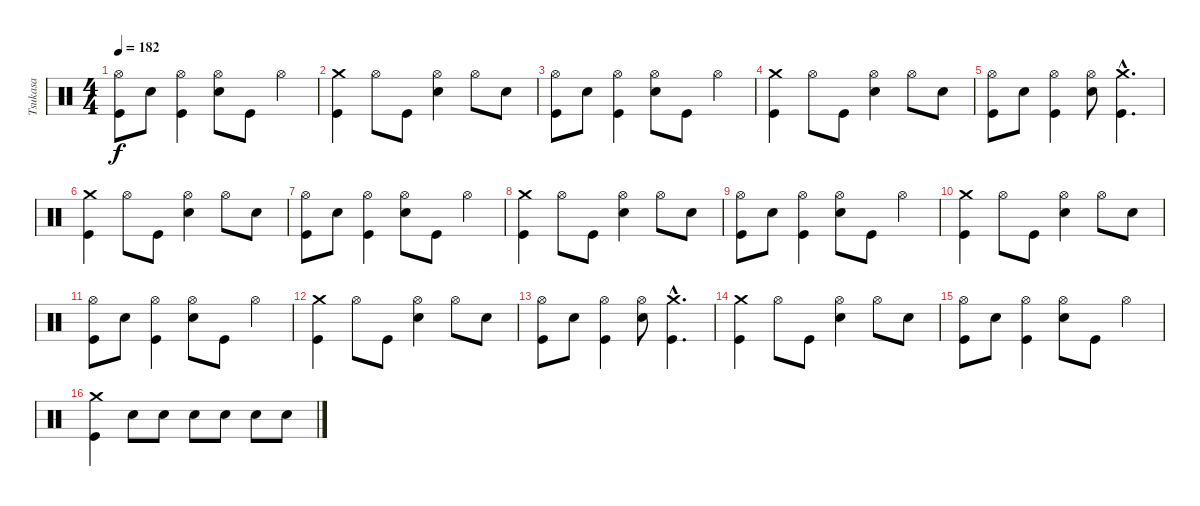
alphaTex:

\track ("Tsukasa" "Tsukasa") {instrument percussion}
\staff {score}
\articulation defaults
\ts (4 4)
\tempo 182
\clef neutral
\ks c
("Kick (hit)" "Hi-Hat (open)").8{dy f} "Electric Snare (hit)".8 ("Kick (hit)" "Hi-Hat (open)").4 ("Electric Snare (hit)" "Hi-Hat (open)").8 "Kick (hit)".8 "Hi-Hat (open)".4 |
("Kick (hit)" "Crash medium (hit)").4 "Hi-Hat (open)".8 "Kick (hit)".8 ("Electric Snare (hit)" "Hi-Hat (open)").4 "Hi-Hat (open)".8 "Electric Snare (hit)".8 |
("Kick (hit)" "Hi-Hat (open)").8 "Electric Snare (hit)".8 ("Kick (hit)" "Hi-Hat (open)").4 ("Electric Snare (hit)" "Hi-Hat (open)").8 "Kick (hit)".8 "Hi-Hat (open)".4 |
("Kick (hit)" "Crash medium (hit)").4 "Hi-Hat (open)".8 "Kick (hit)".8 ("Electric Snare (hit)" "Hi-Hat (open)").4 "Hi-Hat (open)".8 "Electric Snare (hit)".8 |
("Kick (hit)" "Hi-Hat (open)").8 "Electric Snare (hit)".8 ("Kick (hit)" "Hi-Hat (open)").4 ("Electric Snare (hit)" "Hi-Hat (open)").8 ("Kick (hit)"{hac} "Crash medium (hit)"{hac}).4{d} |
("Kick (hit)" "Crash medium (hit)").4 "Hi-Hat (open)".8 "Kick (hit)".8 ("Electric Snare (hit)" "Hi-Hat (open)").4 "Hi-Hat (open)".8 "Electric Snare (hit)".8 |
("Kick (hit)" "Hi-Hat (open)").8 "Electric Snare (hit)".8 ("Kick (hit)" "Hi-Hat (open)").4 ("Electric Snare (hit)" "Hi-Hat (open)").8 "Kick (hit)".8 "Hi-Hat (open)".4 |
("Kick (hit)" "Crash medium (hit)").4 "Hi-Hat (open)".8 "Kick (hit)".8 ("Electric Snare (hit)" "Hi-Hat (open)").4 "Hi-Hat (open)".8 "Electric Snare (hit)".8 |
("Kick (hit)" "Hi-Hat (open)").8 "Electric Snare (hit)".8 ("Kick (hit)" "Hi-Hat (open)").4 ("Electric Snare (hit)" "Hi-Hat (open)").8 "Kick (hit)".8 "Hi-Hat (open)".4 |
("Kick (hit)" "Crash medium (hit)").4 "Hi-Hat (open)".8 "Kick (hit)".8 ("Electric Snare (hit)" "Hi-Hat (open)").4 "Hi-Hat (open)".8 "Electric Snare (hit)".8 |
("Kick (hit)" "Hi-Hat (open)").8 "Electric Snare (hit)".8 ("Kick (hit)" "Hi-Hat (open)").4 ("Electric Snare (hit)" "Hi-Hat (open)").8 "Kick (hit)".8 "Hi-Hat (open)".4 |
("Kick (hit)" "Crash medium (hit)").4 "Hi-Hat (open)".8 "Kick (hit)".8 ("Electric Snare (hit)" "Hi-Hat (open)").4 "Hi-Hat (open)".8 "Electric Snare (hit)".8 |
("Kick (hit)" "Hi-Hat (open)").8 "Electric Snare (hit)".8 ("Kick (hit)" "Hi-Hat (open)").4 ("Electric Snare (hit)" "Hi-Hat (open)").8 ("Kick (hit)"{hac} "Crash medium (hit)"{hac}).4{d} |
("Kick (hit)" "Crash medium (hit)").4 "Hi-Hat (open)".8 "Kick (hit)".8 ("Electric Snare (hit)" "Hi-Hat (open)").4 "Hi-Hat (open)".8 "Electric Snare (hit)".8 |
("Kick (hit)" "Hi-Hat (open)").8 "Electric Snare (hit)".8 ("Kick (hit)" "Hi-Hat (open)").4 ("Electric Snare (hit)" "Hi-Hat (open)").8 "Kick (hit)".8 "Hi-Hat (open)".4 |
("Kick (hit)" "Crash medium (hit)").4 "Electric Snare (hit)".8 "Electric Snare (hit)".8 "Electric Snare (hit)".8 "Electric Snare (hit)".8 "Electric Snare (hit)".8 "Electric Snare (hit)".8
